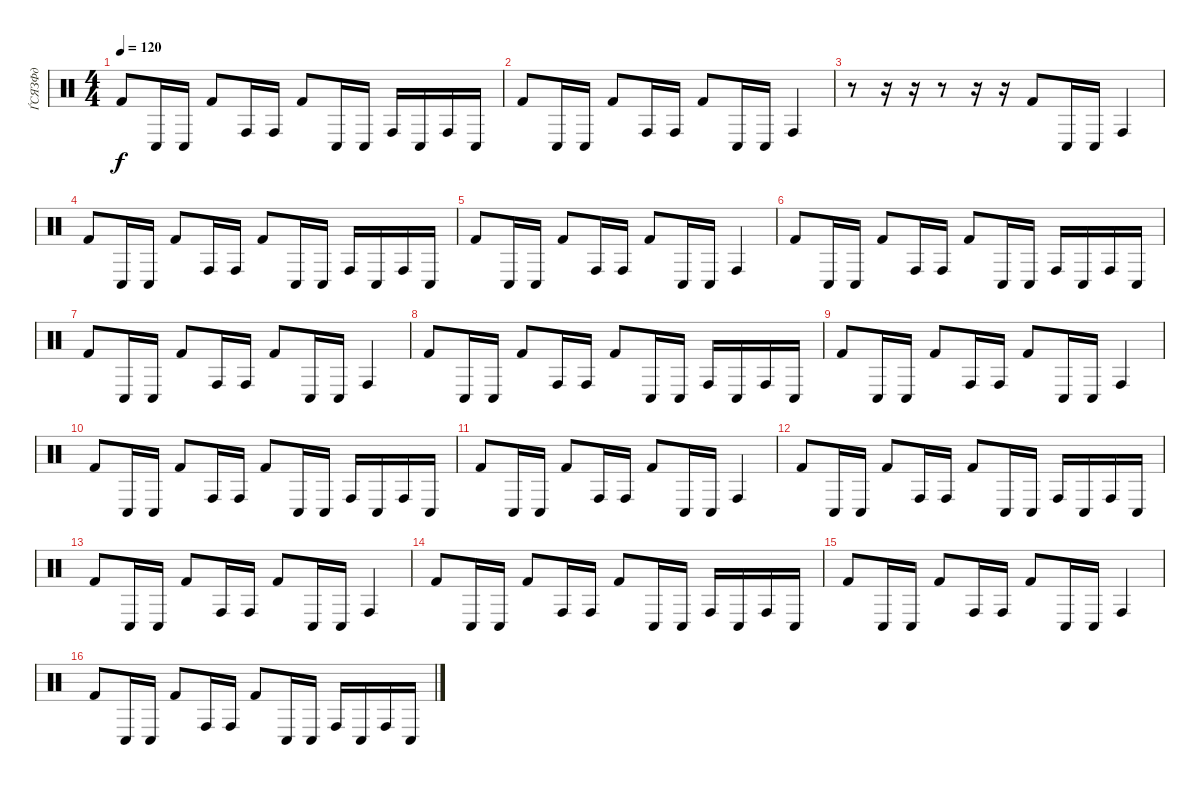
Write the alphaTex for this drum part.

\track ("ЃСЯЗФд" "ЃСЯЗФд") {instrument percussion}
\staff {score}
\articulation defaults
\ts (4 4)
\tempo 120
\clef neutral
\ks aminor "Kick (hit) 2".8{dy f} "Conga low (hit)".16 "Conga low (hit)".16 "Kick (hit) 2".8 "Conga high (hit)".16 "Conga high (hit)".16 "Kick (hit) 2".8 "Conga low (hit)".16 "Conga low (hit)".16 "Conga high (hit)".16 "Conga low (hit)".16 "Conga high (hit)".16 "Conga low (hit)".16
|
"Kick (hit) 2".8 "Conga low (hit)".16 "Conga low (hit)".16 "Kick (hit) 2".8 "Conga high (hit)".16 "Conga high (hit)".16 "Kick (hit) 2".8 "Conga low (hit)".16 "Conga low (hit)".16 "Conga high (hit)".4 |
r.8 r.16 r.16 r.8 r.16 r.16 "Kick (hit) 2".8 "Conga low (hit)".16 "Conga low (hit)".16 "Conga high (hit)".4 |
"Kick (hit) 2".8 "Conga low (hit)".16 "Conga low (hit)".16 "Kick (hit) 2".8 "Conga high (hit)".16 "Conga high (hit)".16 "Kick (hit) 2".8 "Conga low (hit)".16 "Conga low (hit)".16 "Conga high (hit)".16 "Conga low (hit)".16 "Conga high (hit)".16 "Conga low (hit)".16 |
"Kick (hit) 2".8 "Conga low (hit)".16 "Conga low (hit)".16 "Kick (hit) 2".8 "Conga high (hit)".16 "Conga high (hit)".16 "Kick (hit) 2".8 "Conga low (hit)".16 "Conga low (hit)".16 "Conga high (hit)".4 |
"Kick (hit) 2".8 "Conga low (hit)".16 "Conga low (hit)".16 "Kick (hit) 2".8 "Conga high (hit)".16 "Conga high (hit)".16 "Kick (hit) 2".8 "Conga low (hit)".16 "Conga low (hit)".16 "Conga high (hit)".16 "Conga low (hit)".16 "Conga high (hit)".16 "Conga low (hit)".16 |
"Kick (hit) 2".8 "Conga low (hit)".16 "Conga low (hit)".16 "Kick (hit) 2".8 "Conga high (hit)".16 "Conga high (hit)".16 "Kick (hit) 2".8 "Conga low (hit)".16 "Conga low (hit)".16 "Conga high (hit)".4 |
"Kick (hit) 2".8 "Conga low (hit)".16 "Conga low (hit)".16 "Kick (hit) 2".8 "Conga high (hit)".16 "Conga high (hit)".16 "Kick (hit) 2".8 "Conga low (hit)".16 "Conga low (hit)".16 "Conga high (hit)".16 "Conga low (hit)".16 "Conga high (hit)".16 "Conga low (hit)".16 |
"Kick (hit) 2".8 "Conga low (hit)".16 "Conga low (hit)".16 "Kick (hit) 2".8 "Conga high (hit)".16 "Conga high (hit)".16 "Kick (hit) 2".8 "Conga low (hit)".16 "Conga low (hit)".16 "Conga high (hit)".4 |
"Kick (hit) 2".8 "Conga low (hit)".16 "Conga low (hit)".16 "Kick (hit) 2".8 "Conga high (hit)".16 "Conga high (hit)".16 "Kick (hit) 2".8 "Conga low (hit)".16 "Conga low (hit)".16 "Conga high (hit)".16 "Conga low (hit)".16 "Conga high (hit)".16 "Conga low (hit)".16 |
"Kick (hit) 2".8 "Conga low (hit)".16 "Conga low (hit)".16 "Kick (hit) 2".8 "Conga high (hit)".16 "Conga high (hit)".16 "Kick (hit) 2".8 "Conga low (hit)".16 "Conga low (hit)".16 "Conga high (hit)".4 |
"Kick (hit) 2".8 "Conga low (hit)".16 "Conga low (hit)".16 "Kick (hit) 2".8 "Conga high (hit)".16 "Conga high (hit)".16 "Kick (hit) 2".8 "Conga low (hit)".16 "Conga low (hit)".16 "Conga high (hit)".16 "Conga low (hit)".16 "Conga high (hit)".16 "Conga low (hit)".16 |
"Kick (hit) 2".8 "Conga low (hit)".16 "Conga low (hit)".16 "Kick (hit) 2".8 "Conga high (hit)".16 "Conga high (hit)".16 "Kick (hit) 2".8 "Conga low (hit)".16 "Conga low (hit)".16 "Conga high (hit)".4 |
"Kick (hit) 2".8 "Conga low (hit)".16 "Conga low (hit)".16 "Kick (hit) 2".8 "Conga high (hit)".16 "Conga high (hit)".16 "Kick (hit) 2".8 "Conga low (hit)".16 "Conga low (hit)".16 "Conga high (hit)".16 "Conga low (hit)".16 "Conga high (hit)".16 "Conga low (hit)".16 |
"Kick (hit) 2".8 "Conga low (hit)".16 "Conga low (hit)".16 "Kick (hit) 2".8 "Conga high (hit)".16 "Conga high (hit)".16 "Kick (hit) 2".8 "Conga low (hit)".16 "Conga low (hit)".16 "Conga high (hit)".4 |
"Kick (hit) 2".8 "Conga low (hit)".16 "Conga low (hit)".16 "Kick (hit) 2".8 "Conga high (hit)".16 "Conga high (hit)".16 "Kick (hit) 2".8 "Conga low (hit)".16 "Conga low (hit)".16 "Conga high (hit)".16 "Conga low (hit)".16 "Conga high (hit)".16 "Conga low (hit)".16
